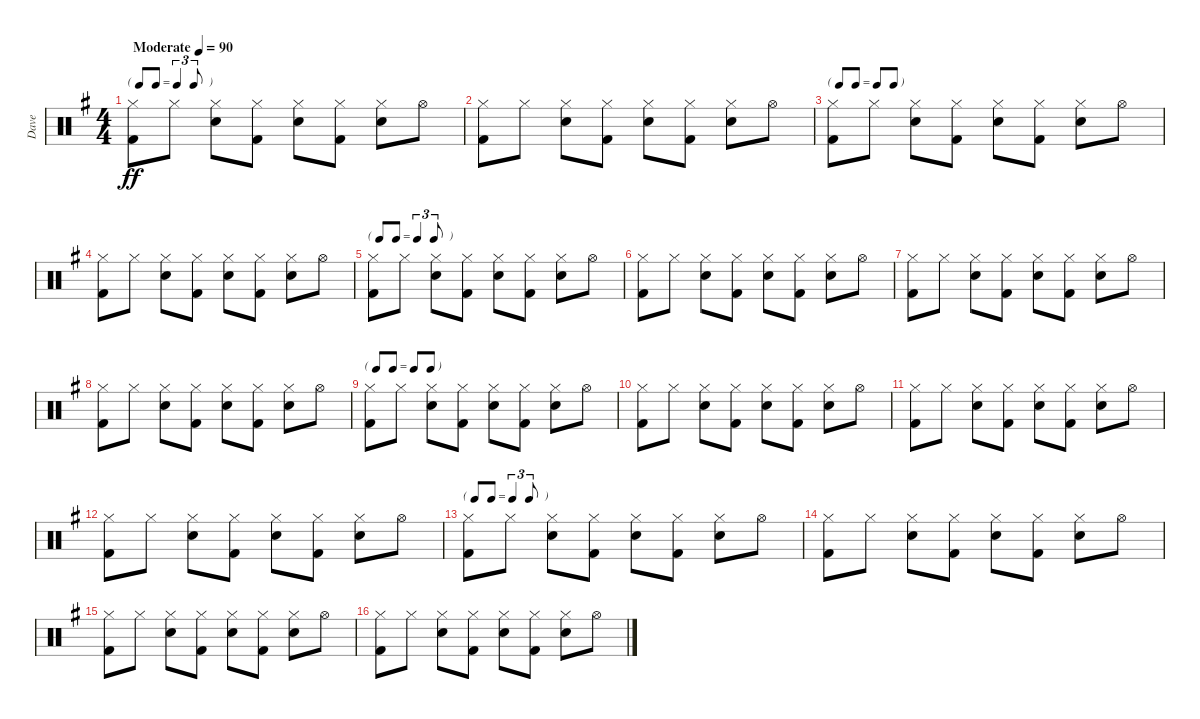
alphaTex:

\track ("Dave" "Dave") {instrument percussion}
\staff {score}
\articulation defaults
\ts (4 4)
\tf triplet8th
\tempo (90 "Moderate")
\clef neutral
\ks g
("Hi-Hat (closed)" "Kick (hit) 2").8{dy ff} "Hi-Hat (closed)".8 ("Hi-Hat (closed)" "Snare (hit) 2").8 ("Hi-Hat (closed)" "Kick (hit) 2").8 ("Hi-Hat (closed)" "Snare (hit) 2").8 ("Hi-Hat (closed)" "Kick (hit) 2").8 ("Hi-Hat (closed)" "Snare (hit) 2").8 "Hi-Hat (open)".8 |
("Hi-Hat (closed)" "Kick (hit) 2").8 "Hi-Hat (closed)".8 ("Hi-Hat (closed)" "Snare (hit) 2").8 ("Hi-Hat (closed)" "Kick (hit) 2").8 ("Hi-Hat (closed)" "Snare (hit) 2").8 ("Hi-Hat (closed)" "Kick (hit) 2").8 ("Hi-Hat (closed)" "Snare (hit) 2").8 "Hi-Hat (open)".8 |
\tf none
("Hi-Hat (closed)" "Kick (hit) 2").8 "Hi-Hat (closed)".8 ("Hi-Hat (closed)" "Snare (hit) 2").8 ("Hi-Hat (closed)" "Kick (hit) 2").8 ("Hi-Hat (closed)" "Snare (hit) 2").8 ("Hi-Hat (closed)" "Kick (hit) 2").8 ("Hi-Hat (closed)" "Snare (hit) 2").8 "Hi-Hat (open)".8 |
("Hi-Hat (closed)" "Kick (hit) 2").8 "Hi-Hat (closed)".8 ("Hi-Hat (closed)" "Snare (hit) 2").8 ("Hi-Hat (closed)" "Kick (hit) 2").8 ("Hi-Hat (closed)" "Snare (hit) 2").8 ("Hi-Hat (closed)" "Kick (hit) 2").8 ("Hi-Hat (closed)" "Snare (hit) 2").8 "Hi-Hat (open)".8 |
\tf triplet8th
("Hi-Hat (closed)" "Kick (hit) 2").8 "Hi-Hat (closed)".8 ("Hi-Hat (closed)" "Snare (hit) 2").8 ("Hi-Hat (closed)" "Kick (hit) 2").8 ("Hi-Hat (closed)" "Snare (hit) 2").8 ("Hi-Hat (closed)" "Kick (hit) 2").8 ("Hi-Hat (closed)" "Snare (hit) 2").8 "Hi-Hat (open)".8 |
("Hi-Hat (closed)" "Kick (hit) 2").8 "Hi-Hat (closed)".8 ("Hi-Hat (closed)" "Snare (hit) 2").8 ("Hi-Hat (closed)" "Kick (hit) 2").8 ("Hi-Hat (closed)" "Snare (hit) 2").8 ("Hi-Hat (closed)" "Kick (hit) 2").8 ("Hi-Hat (closed)" "Snare (hit) 2").8 "Hi-Hat (open)".8 |
("Hi-Hat (closed)" "Kick (hit) 2").8 "Hi-Hat (closed)".8 ("Hi-Hat (closed)" "Snare (hit) 2").8 ("Hi-Hat (closed)" "Kick (hit) 2").8 ("Hi-Hat (closed)" "Snare (hit) 2").8 ("Hi-Hat (closed)" "Kick (hit) 2").8 ("Hi-Hat (closed)" "Snare (hit) 2").8 "Hi-Hat (open)".8 |
("Hi-Hat (closed)" "Kick (hit) 2").8 "Hi-Hat (closed)".8 ("Hi-Hat (closed)" "Snare (hit) 2").8 ("Hi-Hat (closed)" "Kick (hit) 2").8 ("Hi-Hat (closed)" "Snare (hit) 2").8 ("Hi-Hat (closed)" "Kick (hit) 2").8 ("Hi-Hat (closed)" "Snare (hit) 2").8 "Hi-Hat (open)".8 |
\tf none
("Hi-Hat (closed)" "Kick (hit) 2").8 "Hi-Hat (closed)".8 ("Hi-Hat (closed)" "Snare (hit) 2").8 ("Hi-Hat (closed)" "Kick (hit) 2").8 ("Hi-Hat (closed)" "Snare (hit) 2").8 ("Hi-Hat (closed)" "Kick (hit) 2").8 ("Hi-Hat (closed)" "Snare (hit) 2").8 "Hi-Hat (open)".8 |
("Hi-Hat (closed)" "Kick (hit) 2").8 "Hi-Hat (closed)".8 ("Hi-Hat (closed)" "Snare (hit) 2").8 ("Hi-Hat (closed)" "Kick (hit) 2").8 ("Hi-Hat (closed)" "Snare (hit) 2").8 ("Hi-Hat (closed)" "Kick (hit) 2").8 ("Hi-Hat (closed)" "Snare (hit) 2").8 "Hi-Hat (open)".8 |
("Hi-Hat (closed)" "Kick (hit) 2").8 "Hi-Hat (closed)".8 ("Hi-Hat (closed)" "Snare (hit) 2").8 ("Hi-Hat (closed)" "Kick (hit) 2").8 ("Hi-Hat (closed)" "Snare (hit) 2").8 ("Hi-Hat (closed)" "Kick (hit) 2").8 ("Hi-Hat (closed)" "Snare (hit) 2").8 "Hi-Hat (open)".8 |
("Hi-Hat (closed)" "Kick (hit) 2").8 "Hi-Hat (closed)".8 ("Hi-Hat (closed)" "Snare (hit) 2").8 ("Hi-Hat (closed)" "Kick (hit) 2").8 ("Hi-Hat (closed)" "Snare (hit) 2").8 ("Hi-Hat (closed)" "Kick (hit) 2").8 ("Hi-Hat (closed)" "Snare (hit) 2").8 "Hi-Hat (open)".8 |
\tf triplet8th
("Hi-Hat (closed)" "Kick (hit) 2").8 "Hi-Hat (closed)".8 ("Hi-Hat (closed)" "Snare (hit) 2").8 ("Hi-Hat (closed)" "Kick (hit) 2").8 ("Hi-Hat (closed)" "Snare (hit) 2").8 ("Hi-Hat (closed)" "Kick (hit) 2").8 ("Hi-Hat (closed)" "Snare (hit) 2").8 "Hi-Hat (open)".8 |
("Hi-Hat (closed)" "Kick (hit) 2").8 "Hi-Hat (closed)".8 ("Hi-Hat (closed)" "Snare (hit) 2").8 ("Hi-Hat (closed)" "Kick (hit) 2").8 ("Hi-Hat (closed)" "Snare (hit) 2").8 ("Hi-Hat (closed)" "Kick (hit) 2").8 ("Hi-Hat (closed)" "Snare (hit) 2").8 "Hi-Hat (open)".8 |
("Hi-Hat (closed)" "Kick (hit) 2").8 "Hi-Hat (closed)".8 ("Hi-Hat (closed)" "Snare (hit) 2").8 ("Hi-Hat (closed)" "Kick (hit) 2").8 ("Hi-Hat (closed)" "Snare (hit) 2").8 ("Hi-Hat (closed)" "Kick (hit) 2").8 ("Hi-Hat (closed)" "Snare (hit) 2").8 "Hi-Hat (open)".8 |
("Hi-Hat (closed)" "Kick (hit) 2").8 "Hi-Hat (closed)".8 ("Hi-Hat (closed)" "Snare (hit) 2").8 ("Hi-Hat (closed)" "Kick (hit) 2").8 ("Hi-Hat (closed)" "Snare (hit) 2").8 ("Hi-Hat (closed)" "Kick (hit) 2").8 ("Hi-Hat (closed)" "Snare (hit) 2").8 "Hi-Hat (open)".8
